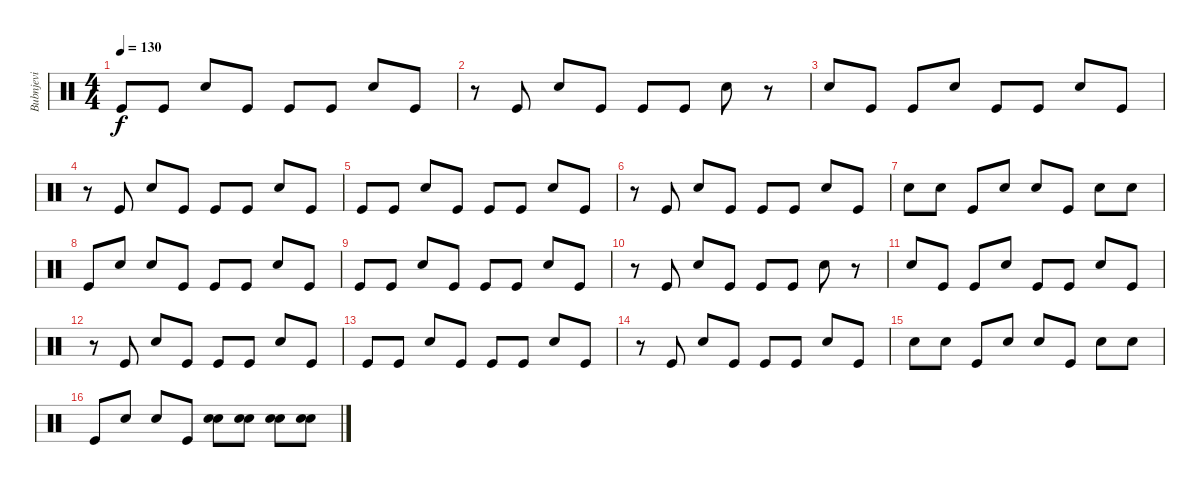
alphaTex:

\track ("Bubnjevi" "Bubnjevi") {instrument percussion}
\staff {score}
\articulation defaults
\ts (4 4)
\tempo 130
\clef neutral
\ks c "Kick (hit)".8{dy f} "Kick (hit)".8 "Snare (hit) 2".8 "Kick (hit)".8 "Kick (hit)".8 "Kick (hit)".8 "Snare (hit) 2".8 "Kick (hit)".8
|
r.8 "Kick (hit)".8 "Snare (hit) 2".8 "Kick (hit)".8 "Kick (hit)".8 "Kick (hit)".8 "Snare (hit) 2".8 r.8 |
"Snare (hit) 2".8 "Kick (hit)".8 "Kick (hit)".8 "Snare (hit) 2".8 "Kick (hit)".8 "Kick (hit)".8 "Snare (hit) 2".8 "Kick (hit)".8 |
r.8 "Kick (hit)".8 "Snare (hit) 2".8 "Kick (hit)".8 "Kick (hit)".8 "Kick (hit)".8 "Snare (hit) 2".8 "Kick (hit)".8 |
"Kick (hit)".8 "Kick (hit)".8 "Snare (hit) 2".8 "Kick (hit)".8 "Kick (hit)".8 "Kick (hit)".8 "Snare (hit) 2".8 "Kick (hit)".8 |
r.8 "Kick (hit)".8 "Snare (hit) 2".8 "Kick (hit)".8 "Kick (hit)".8 "Kick (hit)".8 "Snare (hit) 2".8 "Kick (hit)".8 |
"Snare (hit) 2".8 "Snare (hit) 2".8 "Kick (hit)".8 "Snare (hit) 2".8 "Snare (hit) 2".8 "Kick (hit)".8 "Snare (hit) 2".8 "Snare (hit) 2".8 |
"Kick (hit)".8 "Snare (hit) 2".8 "Snare (hit) 2".8 "Kick (hit)".8 "Kick (hit)".8 "Kick (hit)".8 "Snare (hit) 2".8 "Kick (hit)".8 |
"Kick (hit)".8 "Kick (hit)".8 "Snare (hit) 2".8 "Kick (hit)".8 "Kick (hit)".8 "Kick (hit)".8 "Snare (hit) 2".8 "Kick (hit)".8 |
r.8 "Kick (hit)".8 "Snare (hit) 2".8 "Kick (hit)".8 "Kick (hit)".8 "Kick (hit)".8 "Snare (hit) 2".8 r.8 |
"Snare (hit) 2".8 "Kick (hit)".8 "Kick (hit)".8 "Snare (hit) 2".8 "Kick (hit)".8 "Kick (hit)".8 "Snare (hit) 2".8 "Kick (hit)".8 |
r.8 "Kick (hit)".8 "Snare (hit) 2".8 "Kick (hit)".8 "Kick (hit)".8 "Kick (hit)".8 "Snare (hit) 2".8 "Kick (hit)".8 |
"Kick (hit)".8 "Kick (hit)".8 "Snare (hit) 2".8 "Kick (hit)".8 "Kick (hit)".8 "Kick (hit)".8 "Snare (hit) 2".8 "Kick (hit)".8 |
r.8 "Kick (hit)".8 "Snare (hit) 2".8 "Kick (hit)".8 "Kick (hit)".8 "Kick (hit)".8 "Snare (hit) 2".8 "Kick (hit)".8 |
"Snare (hit) 2".8 "Snare (hit) 2".8 "Kick (hit)".8 "Snare (hit) 2".8 "Snare (hit) 2".8 "Kick (hit)".8 "Snare (hit) 2".8 "Snare (hit) 2".8 |
"Kick (hit)".8 "Snare (hit) 2".8 "Snare (hit) 2".8 "Kick (hit)".8 ("Snare (hit) 2" "Snare (hit) 2").8 ("Snare (hit) 2" "Snare (hit) 2").8 ("Snare (hit) 2" "Snare (hit) 2").8 ("Snare (hit) 2" "Snare (hit) 2").8
